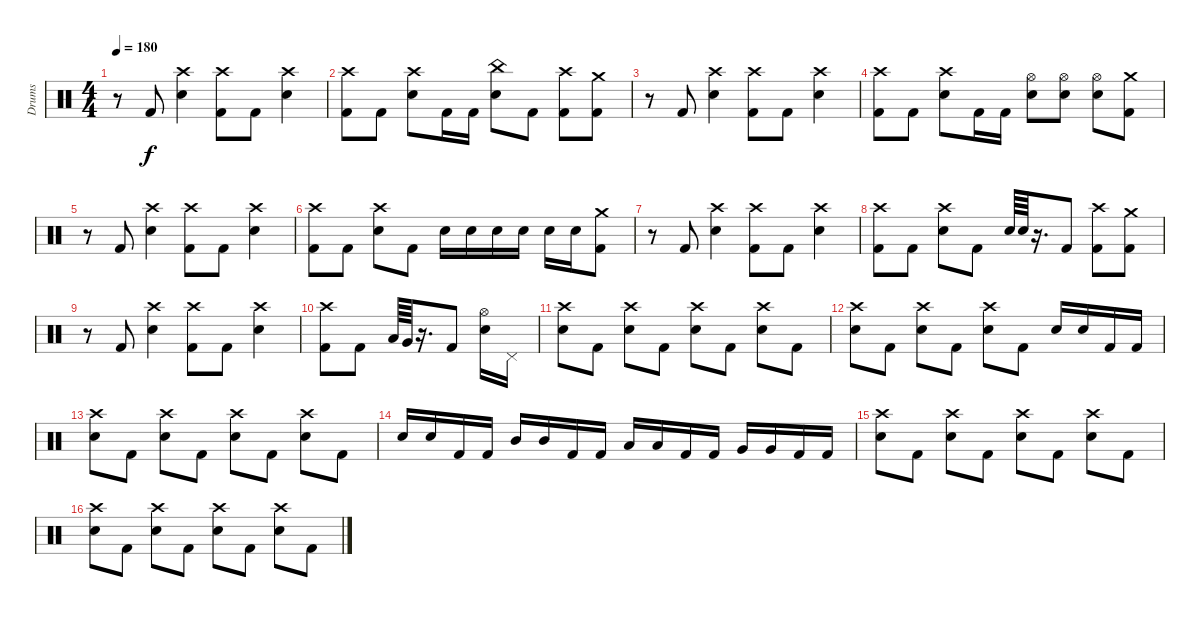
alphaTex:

\track ("Drums" "Drums") {instrument percussion}
\staff {score}
\articulation defaults
\ts (4 4)
\tempo 180
\clef neutral
\ks c
r.8{dy f} "Kick (hit) 2".8 ("Crash high (hit)" "Electric Snare (hit)").4 ("Crash high (hit)" "Kick (hit) 2").8 "Kick (hit) 2".8 ("Crash high (hit)" "Electric Snare (hit)").4 |
("Crash high (hit)" "Kick (hit) 2").8 "Kick (hit) 2".8 ("Crash high (hit)" "Electric Snare (hit)").8 "Kick (hit) 2".16 "Kick (hit) 2".16 ("China (hit)" "Electric Snare (hit)").8 "Kick (hit) 2".8 ("Crash high (hit)" "Kick (hit) 2").8 ("Crash medium (hit)" "Kick (hit) 2").8 |
r.8 "Kick (hit) 2".8 ("Crash high (hit)" "Electric Snare (hit)").4 ("Crash high (hit)" "Kick (hit) 2").8 "Kick (hit) 2".8 ("Crash high (hit)" "Electric Snare (hit)").4 |
("Crash high (hit)" "Kick (hit) 2").8 "Kick (hit) 2".8 ("Crash high (hit)" "Electric Snare (hit)").8 "Kick (hit) 2".16 "Kick (hit) 2".16 ("Hi-Hat (open)" "Electric Snare (hit)").8 ("Hi-Hat (open)" "Electric Snare (hit)").8 ("Hi-Hat (open)" "Electric Snare (hit)").8 ("Crash medium (hit)" "Kick (hit) 2").8 |
r.8 "Kick (hit) 2".8 ("Crash high (hit)" "Electric Snare (hit)").4 ("Crash high (hit)" "Kick (hit) 2").8 "Kick (hit) 2".8 ("Crash high (hit)" "Electric Snare (hit)").4 |
("Crash high (hit)" "Kick (hit) 2").8 "Kick (hit) 2".8 ("Crash high (hit)" "Electric Snare (hit)").8 "Kick (hit) 2".8 "Electric Snare (hit)".16 "Electric Snare (hit)".16 "Electric Snare (hit)".16 "Electric Snare (hit)".16 "Electric Snare (hit)".16 "Electric Snare (hit)".16 ("Crash medium (hit)" "Kick (hit) 2").8 |
r.8 "Kick (hit) 2".8 ("Crash high (hit)" "Electric Snare (hit)").4 ("Crash high (hit)" "Kick (hit) 2").8 "Kick (hit) 2".8 ("Crash high (hit)" "Electric Snare (hit)").4 |
("Crash high (hit)" "Kick (hit) 2").8 "Kick (hit) 2".8 ("Crash high (hit)" "Electric Snare (hit)").8 "Kick (hit) 2".8 "Electric Snare (hit)".64 "Electric Snare (hit)".64 r.16{d} "Kick (hit) 2".8 ("Crash high (hit)" "Kick (hit) 2").8 ("Crash medium (hit)" "Kick (hit) 2").8 |
r.8 "Kick (hit) 2".8 ("Crash high (hit)" "Electric Snare (hit)").4 ("Crash high (hit)" "Kick (hit) 2").8 "Kick (hit) 2".8 ("Crash high (hit)" "Electric Snare (hit)").4 |
("Crash high (hit)" "Kick (hit) 2").8 "Kick (hit) 2".8 "Low Tom (hit)".64 "Very Low Tom (hit)".64 r.16{d} "Kick (hit) 2".8 ("Hi-Hat (open)" "Electric Snare (hit)").16 "Pedal Hi-Hat (hit)".16 |
("Crash high (hit)" "Electric Snare (hit)").8 "Kick (hit) 2".8 ("Crash high (hit)" "Electric Snare (hit)").8 "Kick (hit) 2".8 ("Crash high (hit)" "Electric Snare (hit)").8 "Kick (hit) 2".8 ("Crash high (hit)" "Electric Snare (hit)").8 "Kick (hit) 2".8 |
("Crash high (hit)" "Electric Snare (hit)").8 "Kick (hit) 2".8 ("Crash high (hit)" "Electric Snare (hit)").8 "Kick (hit) 2".8 ("Crash high (hit)" "Electric Snare (hit)").8 "Kick (hit) 2".8 "Electric Snare (hit)".16 "Electric Snare (hit)".16 "Kick (hit) 2".16 "Kick (hit) 2".16 |
("Crash high (hit)" "Electric Snare (hit)").8 "Kick (hit) 2".8 ("Crash high (hit)" "Electric Snare (hit)").8 "Kick (hit) 2".8 ("Crash high (hit)" "Electric Snare (hit)").8 "Kick (hit) 2".8 ("Crash high (hit)" "Electric Snare (hit)").8 "Kick (hit) 2".8 |
"Electric Snare (hit)".16 "Electric Snare (hit)".16 "Kick (hit) 2".16 "Kick (hit) 2".16 "Mid Tom (hit)".16 "Mid Tom (hit)".16 "Kick (hit) 2".16 "Kick (hit) 2".16 "Low Tom (hit)".16 "Low Tom (hit)".16 "Kick (hit) 2".16 "Kick (hit) 2".16 "Very Low Tom (hit)".16 "Very Low Tom (hit)".16 "Kick (hit) 2".16 "Kick (hit) 2".16 |
("Crash high (hit)" "Electric Snare (hit)").8 "Kick (hit) 2".8 ("Crash high (hit)" "Electric Snare (hit)").8 "Kick (hit) 2".8 ("Crash high (hit)" "Electric Snare (hit)").8 "Kick (hit) 2".8 ("Crash high (hit)" "Electric Snare (hit)").8 "Kick (hit) 2".8 |
("Crash high (hit)" "Electric Snare (hit)").8 "Kick (hit) 2".8 ("Crash high (hit)" "Electric Snare (hit)").8 "Kick (hit) 2".8 ("Crash high (hit)" "Electric Snare (hit)").8 "Kick (hit) 2".8 ("Crash high (hit)" "Electric Snare (hit)").8 "Kick (hit) 2".8
